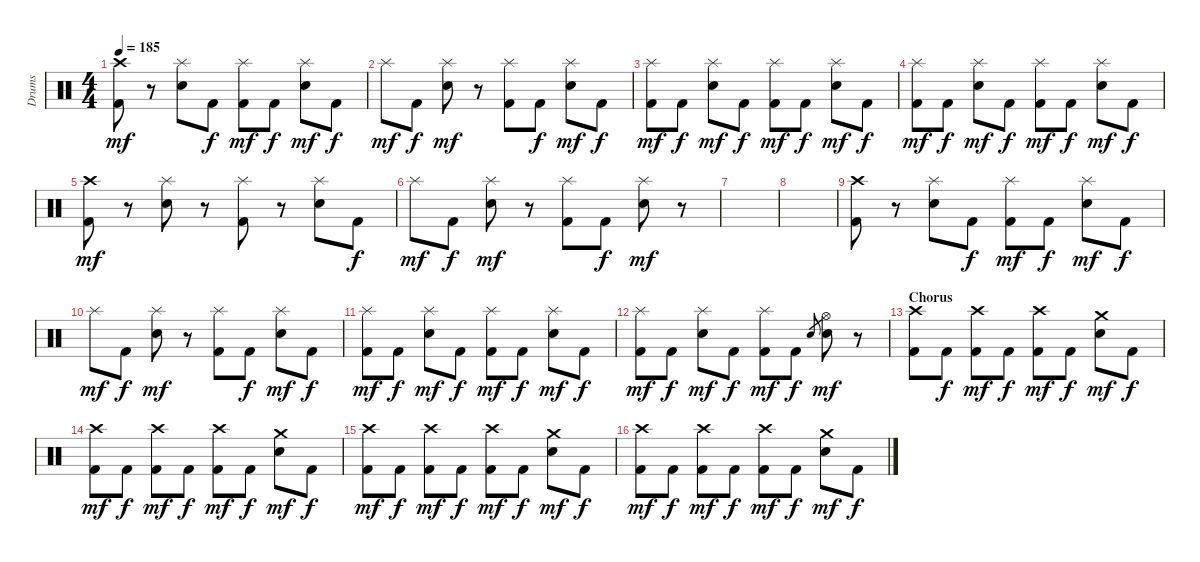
\track ("Drums" "Drums") {instrument percussion}
\staff {score}
\articulation defaults
\ts (4 4)
\tempo 185
\clef neutral
\ks c
("Crash high (hit)" "Kick (hit) 2").8{dy mf} r.8 ("Splash (hit)" "Electric Snare (hit)").8 "Kick (hit) 2".8{dy f} ("Splash (hit)" "Kick (hit) 2").8{dy mf} "Kick (hit) 2".8{dy f} ("Splash (hit)" "Electric Snare (hit)").8{dy mf} "Kick (hit) 2".8{dy f} |
"Splash (hit)".8{dy mf} "Kick (hit) 2".8{dy f} ("Splash (hit)" "Electric Snare (hit)").8{dy mf} r.8 ("Splash (hit)" "Kick (hit) 2").8 "Kick (hit) 2".8{dy f} ("Splash (hit)" "Electric Snare (hit)").8{dy mf} "Kick (hit) 2".8{dy f} |
("Splash (hit)" "Kick (hit) 2").8{dy mf} "Kick (hit) 2".8{dy f} ("Splash (hit)" "Electric Snare (hit)").8{dy mf} "Kick (hit) 2".8{dy f} ("Splash (hit)" "Kick (hit) 2").8{dy mf} "Kick (hit) 2".8{dy f} ("Splash (hit)" "Electric Snare (hit)").8{dy mf} "Kick (hit) 2".8{dy f} |
("Splash (hit)" "Kick (hit) 2").8{dy mf} "Kick (hit) 2".8{dy f} ("Splash (hit)" "Electric Snare (hit)").8{dy mf} "Kick (hit) 2".8{dy f} ("Splash (hit)" "Kick (hit) 2").8{dy mf} "Kick (hit) 2".8{dy f} ("Splash (hit)" "Electric Snare (hit)").8{dy mf} "Kick (hit) 2".8{dy f} |
("Crash high (hit)" "Kick (hit) 2").8{dy mf} r.8 ("Splash (hit)" "Electric Snare (hit)").8 r.8 ("Splash (hit)" "Kick (hit) 2").8 r.8 ("Splash (hit)" "Electric Snare (hit)").8 "Kick (hit) 2".8{dy f} |
"Splash (hit)".8{dy mf} "Kick (hit) 2".8{dy f} ("Splash (hit)" "Electric Snare (hit)").8{dy mf} r.8 ("Splash (hit)" "Kick (hit) 2").8 "Kick (hit) 2".8{dy f} ("Splash (hit)" "Electric Snare (hit)").8{dy mf} r.8 |
|
|
("Crash high (hit)" "Kick (hit) 2").8 r.8 ("Splash (hit)" "Electric Snare (hit)").8 "Kick (hit) 2".8{dy f} ("Splash (hit)" "Kick (hit) 2").8{dy mf} "Kick (hit) 2".8{dy f} ("Splash (hit)" "Electric Snare (hit)").8{dy mf} "Kick (hit) 2".8{dy f} |
"Splash (hit)".8{dy mf} "Kick (hit) 2".8{dy f} ("Splash (hit)" "Electric Snare (hit)").8{dy mf} r.8 ("Splash (hit)" "Kick (hit) 2").8 "Kick (hit) 2".8{dy f} ("Splash (hit)" "Electric Snare (hit)").8{dy mf} "Kick (hit) 2".8{dy f} |
("Splash (hit)" "Kick (hit) 2").8{dy mf} "Kick (hit) 2".8{dy f} ("Splash (hit)" "Electric Snare (hit)").8{dy mf} "Kick (hit) 2".8{dy f} ("Splash (hit)" "Kick (hit) 2").8{dy mf} "Kick (hit) 2".8{dy f} ("Splash (hit)" "Electric Snare (hit)").8{dy mf} "Kick (hit) 2".8{dy f} |
("Splash (hit)" "Kick (hit) 2").8{dy mf} "Kick (hit) 2".8{dy f} ("Splash (hit)" "Electric Snare (hit)").8{dy mf} "Kick (hit) 2".8{dy f} ("Splash (hit)" "Kick (hit) 2").8{dy mf} "Kick (hit) 2".8{dy f} "Electric Snare (hit)".8{gr} ("Hi-Hat (open)" "Electric Snare (hit)").8{dy mf} r.8 |
\section ("" "Chorus")
("Crash high (hit)" "Kick (hit) 2").8 "Kick (hit) 2".8{dy f} ("Crash high (hit)" "Kick (hit) 2").8{dy mf} "Kick (hit) 2".8{dy f} ("Crash high (hit)" "Kick (hit) 2").8{dy mf} "Kick (hit) 2".8{dy f} ("Crash medium (hit)" "Electric Snare (hit)").8{dy mf} "Kick (hit) 2".8{dy f} |
("Crash high (hit)" "Kick (hit) 2").8{dy mf} "Kick (hit) 2".8{dy f} ("Crash high (hit)" "Kick (hit) 2").8{dy mf} "Kick (hit) 2".8{dy f} ("Crash high (hit)" "Kick (hit) 2").8{dy mf} "Kick (hit) 2".8{dy f} ("Crash medium (hit)" "Electric Snare (hit)").8{dy mf} "Kick (hit) 2".8{dy f} |
("Crash high (hit)" "Kick (hit) 2").8{dy mf} "Kick (hit) 2".8{dy f} ("Crash high (hit)" "Kick (hit) 2").8{dy mf} "Kick (hit) 2".8{dy f} ("Crash high (hit)" "Kick (hit) 2").8{dy mf} "Kick (hit) 2".8{dy f} ("Crash medium (hit)" "Electric Snare (hit)").8{dy mf} "Kick (hit) 2".8{dy f} |
("Crash high (hit)" "Kick (hit) 2").8{dy mf} "Kick (hit) 2".8{dy f} ("Crash high (hit)" "Kick (hit) 2").8{dy mf} "Kick (hit) 2".8{dy f} ("Crash high (hit)" "Kick (hit) 2").8{dy mf} "Kick (hit) 2".8{dy f} ("Crash medium (hit)" "Electric Snare (hit)").8{dy mf} "Kick (hit) 2".8{dy f}
